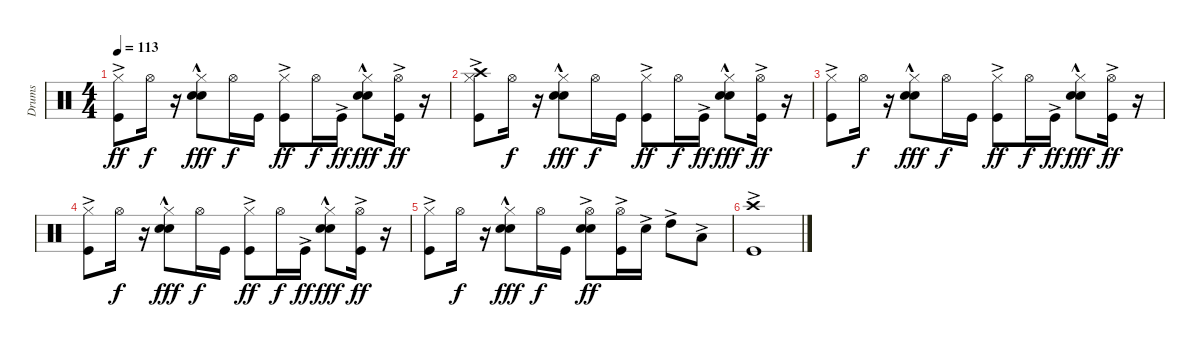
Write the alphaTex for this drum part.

\track ("Drums" "Drums") {instrument percussion}
\staff {score}
\articulation defaults
\ts (4 4)
\tempo 113
\clef neutral
\ks c
("Hi-Hat (closed)" "Kick (hit)"{ac}).8{dy ff} "Hi-Hat (open)".16{dy f} r.16 ("Hi-Hat (closed)" "Hand Clap (hit)"{hac} "Snare (hit) 2").8{dy fff} "Hi-Hat (open)".16{dy f} "Kick (hit)".16 ("Hi-Hat (closed)" "Kick (hit)"{ac}).8{dy ff} "Hi-Hat (open)".16{dy f} "Kick (hit)"{ac}.16{dy ff} ("Hi-Hat (closed)" "Hand Clap (hit)"{hac} "Snare (hit) 2").8{dy fff} ("Hi-Hat (open)" "Kick (hit)"{ac}).16{dy ff} r.16 |
("Crash high (hit)" "Hi-Hat (closed)" "Kick (hit)"{ac}).8 "Hi-Hat (open)".16{dy f} r.16 ("Hi-Hat (closed)" "Hand Clap (hit)"{hac} "Snare (hit) 2").8{dy fff} "Hi-Hat (open)".16{dy f} "Kick (hit)".16 ("Hi-Hat (closed)" "Kick (hit)"{ac}).8{dy ff} "Hi-Hat (open)".16{dy f} "Kick (hit)"{ac}.16{dy ff} ("Hi-Hat (closed)" "Hand Clap (hit)"{hac} "Snare (hit) 2").8{dy fff} ("Hi-Hat (open)" "Kick (hit)"{ac}).16{dy ff} r.16 |
("Hi-Hat (closed)" "Kick (hit)"{ac}).8 "Hi-Hat (open)".16{dy f} r.16 ("Hi-Hat (closed)" "Hand Clap (hit)"{hac} "Snare (hit) 2").8{dy fff} "Hi-Hat (open)".16{dy f} "Kick (hit)".16 ("Hi-Hat (closed)" "Kick (hit)"{ac}).8{dy ff} "Hi-Hat (open)".16{dy f} "Kick (hit)"{ac}.16{dy ff} ("Hi-Hat (closed)" "Hand Clap (hit)"{hac} "Snare (hit) 2").8{dy fff} ("Hi-Hat (open)" "Kick (hit)"{ac}).16{dy ff} r.16 |
("Hi-Hat (closed)" "Kick (hit)"{ac}).8 "Hi-Hat (open)".16{dy f} r.16 ("Hi-Hat (closed)" "Hand Clap (hit)"{hac} "Snare (hit) 2").8{dy fff} "Hi-Hat (open)".16{dy f} "Kick (hit)".16 ("Hi-Hat (closed)" "Kick (hit)"{ac}).8{dy ff} "Hi-Hat (open)".16{dy f} "Kick (hit)"{ac}.16{dy ff} ("Hi-Hat (closed)" "Hand Clap (hit)"{hac} "Snare (hit) 2").8{dy fff} ("Hi-Hat (open)" "Kick (hit)"{ac}).16{dy ff} r.16 |
("Hi-Hat (closed)" "Kick (hit)"{ac}).8 "Hi-Hat (open)".16{dy f} r.16 ("Hi-Hat (closed)" "Hand Clap (hit)"{hac} "Snare (hit) 2").8{dy fff} "Hi-Hat (open)".16{dy f} "Kick (hit)".16 ("Hi-Hat (open)" "Hand Clap (hit)" "Snare (hit) 2"{ac}).8{dy ff} ("Hi-Hat (open)" "Kick (hit)"{ac}).16 "Snare (hit) 2"{ac}.16 "High Tom (hit)"{ac}.8 "Low Tom (hit)"{ac}.8 |
("Crash high (hit)" "Kick (hit)"{ac}).1
